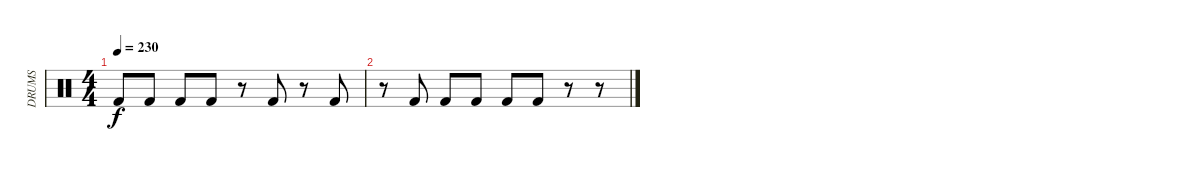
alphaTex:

\track ("DRUMS" "DRUMS") {instrument percussion}
\staff {score}
\articulation defaults
\ts (4 4)
\tempo 230
\clef neutral
\ks c "Kick (hit) 2".8{dy f} "Kick (hit) 2".8 "Kick (hit) 2".8 "Kick (hit) 2".8
r.8 "Kick (hit) 2".8 r.8 "Kick (hit) 2".8 |
r.8 "Kick (hit) 2".8 "Kick (hit) 2".8 "Kick (hit) 2".8 "Kick (hit) 2".8 "Kick (hit) 2".8 r.8 r.8
